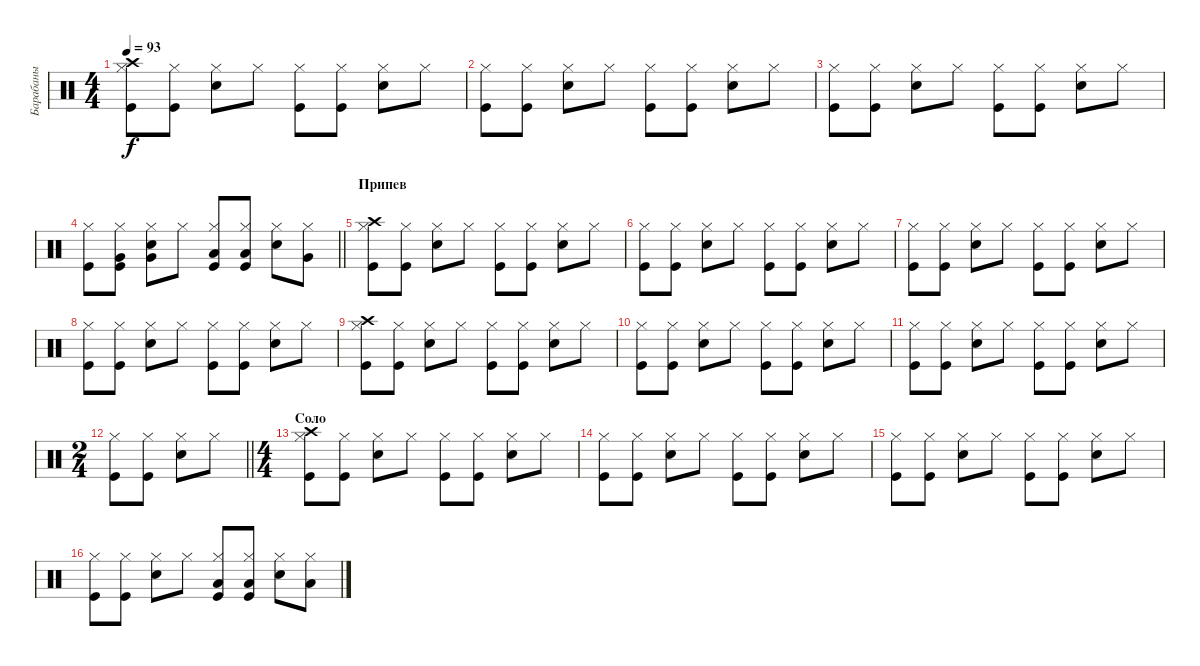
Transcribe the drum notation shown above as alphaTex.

\track ("Барабаны" "Барабаны") {instrument percussion}
\staff {score}
\articulation defaults
\ts (4 4)
\tempo 93
\clef neutral
\ks c
("Kick (hit)" "Hi-Hat (closed)" "Crash high (hit)").8{dy f} ("Kick (hit)" "Hi-Hat (closed)").8 ("Snare (hit) 2" "Hi-Hat (closed)").8 "Hi-Hat (closed)".8 ("Kick (hit)" "Hi-Hat (closed)").8 ("Kick (hit)" "Hi-Hat (closed)").8 ("Snare (hit) 2" "Hi-Hat (closed)").8 "Hi-Hat (closed)".8 |
("Kick (hit)" "Hi-Hat (closed)").8 ("Kick (hit)" "Hi-Hat (closed)").8 ("Snare (hit) 2" "Hi-Hat (closed)").8 "Hi-Hat (closed)".8 ("Kick (hit)" "Hi-Hat (closed)").8 ("Kick (hit)" "Hi-Hat (closed)").8 ("Snare (hit) 2" "Hi-Hat (closed)").8 "Hi-Hat (closed)".8 |
("Kick (hit)" "Hi-Hat (closed)").8 ("Kick (hit)" "Hi-Hat (closed)").8 ("Snare (hit) 2" "Hi-Hat (closed)").8 "Hi-Hat (closed)".8 ("Kick (hit)" "Hi-Hat (closed)").8 ("Kick (hit)" "Hi-Hat (closed)").8 ("Snare (hit) 2" "Hi-Hat (closed)").8 "Hi-Hat (closed)".8 |
\barLineRight lightlight
("Kick (hit)" "Hi-Hat (closed)").8 ("Kick (hit)" "Hi-Hat (closed)" "Very Low Tom (hit)").8 ("Snare (hit) 2" "Hi-Hat (closed)" "Very Low Tom (hit)").8 "Hi-Hat (closed)".8 ("Kick (hit)" "Hi-Hat (closed)" "Low Floor Tom (hit)").8 ("Kick (hit)" "Hi-Hat (closed)" "Low Floor Tom (hit)").8 ("Snare (hit) 2" "Hi-Hat (closed)").8 ("Hi-Hat (closed)" "Very Low Tom (hit)").8 |
\section ("" "Припев")
("Kick (hit)" "Hi-Hat (closed)" "Crash high (hit)").8 ("Kick (hit)" "Hi-Hat (closed)").8 ("Snare (hit) 2" "Hi-Hat (closed)").8 "Hi-Hat (closed)".8 ("Kick (hit)" "Hi-Hat (closed)").8 ("Kick (hit)" "Hi-Hat (closed)").8 ("Snare (hit) 2" "Hi-Hat (closed)").8 "Hi-Hat (closed)".8 |
("Kick (hit)" "Hi-Hat (closed)").8 ("Kick (hit)" "Hi-Hat (closed)").8 ("Snare (hit) 2" "Hi-Hat (closed)").8 "Hi-Hat (closed)".8 ("Kick (hit)" "Hi-Hat (closed)").8 ("Kick (hit)" "Hi-Hat (closed)").8 ("Snare (hit) 2" "Hi-Hat (closed)").8 "Hi-Hat (closed)".8 |
("Kick (hit)" "Hi-Hat (closed)").8 ("Kick (hit)" "Hi-Hat (closed)").8 ("Snare (hit) 2" "Hi-Hat (closed)").8 "Hi-Hat (closed)".8 ("Kick (hit)" "Hi-Hat (closed)").8 ("Kick (hit)" "Hi-Hat (closed)").8 ("Snare (hit) 2" "Hi-Hat (closed)").8 "Hi-Hat (closed)".8 |
("Kick (hit)" "Hi-Hat (closed)").8 ("Kick (hit)" "Hi-Hat (closed)").8 ("Snare (hit) 2" "Hi-Hat (closed)").8 "Hi-Hat (closed)".8 ("Kick (hit)" "Hi-Hat (closed)").8 ("Kick (hit)" "Hi-Hat (closed)").8 ("Snare (hit) 2" "Hi-Hat (closed)").8 "Hi-Hat (closed)".8 |
("Kick (hit)" "Hi-Hat (closed)" "Crash high (hit)").8 ("Kick (hit)" "Hi-Hat (closed)").8 ("Snare (hit) 2" "Hi-Hat (closed)").8 "Hi-Hat (closed)".8 ("Kick (hit)" "Hi-Hat (closed)").8 ("Kick (hit)" "Hi-Hat (closed)").8 ("Snare (hit) 2" "Hi-Hat (closed)").8 "Hi-Hat (closed)".8 |
("Kick (hit)" "Hi-Hat (closed)").8 ("Kick (hit)" "Hi-Hat (closed)").8 ("Snare (hit) 2" "Hi-Hat (closed)").8 "Hi-Hat (closed)".8 ("Kick (hit)" "Hi-Hat (closed)").8 ("Kick (hit)" "Hi-Hat (closed)").8 ("Snare (hit) 2" "Hi-Hat (closed)").8 "Hi-Hat (closed)".8 |
("Kick (hit)" "Hi-Hat (closed)").8 ("Kick (hit)" "Hi-Hat (closed)").8 ("Snare (hit) 2" "Hi-Hat (closed)").8 "Hi-Hat (closed)".8 ("Kick (hit)" "Hi-Hat (closed)").8 ("Kick (hit)" "Hi-Hat (closed)").8 ("Snare (hit) 2" "Hi-Hat (closed)").8 "Hi-Hat (closed)".8 |
\ts (2 4)
\barLineRight lightlight
("Kick (hit)" "Hi-Hat (closed)").8 ("Kick (hit)" "Hi-Hat (closed)").8 ("Snare (hit) 2" "Hi-Hat (closed)").8 "Hi-Hat (closed)".8 |
\ts (4 4)
\section ("" "Соло")
("Kick (hit)" "Hi-Hat (closed)" "Crash high (hit)").8 ("Kick (hit)" "Hi-Hat (closed)").8 ("Snare (hit) 2" "Hi-Hat (closed)").8 "Hi-Hat (closed)".8 ("Kick (hit)" "Hi-Hat (closed)").8 ("Kick (hit)" "Hi-Hat (closed)").8 ("Snare (hit) 2" "Hi-Hat (closed)").8 "Hi-Hat (closed)".8 |
("Kick (hit)" "Hi-Hat (closed)").8 ("Kick (hit)" "Hi-Hat (closed)").8 ("Snare (hit) 2" "Hi-Hat (closed)").8 "Hi-Hat (closed)".8 ("Kick (hit)" "Hi-Hat (closed)").8 ("Kick (hit)" "Hi-Hat (closed)").8 ("Snare (hit) 2" "Hi-Hat (closed)").8 "Hi-Hat (closed)".8 |
("Kick (hit)" "Hi-Hat (closed)").8 ("Kick (hit)" "Hi-Hat (closed)").8 ("Snare (hit) 2" "Hi-Hat (closed)").8 "Hi-Hat (closed)".8 ("Kick (hit)" "Hi-Hat (closed)").8 ("Kick (hit)" "Hi-Hat (closed)").8 ("Snare (hit) 2" "Hi-Hat (closed)").8 "Hi-Hat (closed)".8 |
("Kick (hit)" "Hi-Hat (closed)").8 ("Kick (hit)" "Hi-Hat (closed)").8 ("Snare (hit) 2" "Hi-Hat (closed)").8 "Hi-Hat (closed)".8 ("Kick (hit)" "Hi-Hat (closed)" "Low Floor Tom (hit)").8 ("Kick (hit)" "Hi-Hat (closed)" "Low Floor Tom (hit)").8 ("Snare (hit) 2" "Hi-Hat (closed)").8 ("Hi-Hat (closed)" "Low Floor Tom (hit)").8
